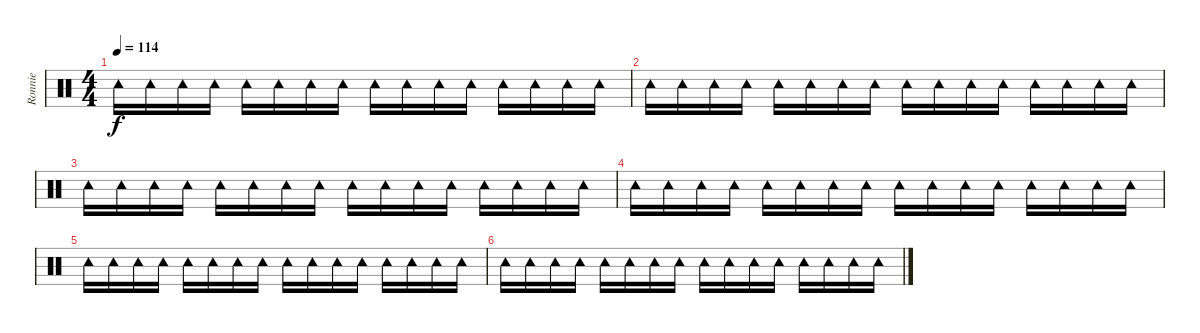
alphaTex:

\track ("Ronnie" "Ronnie") {instrument percussion}
\staff {score}
\articulation defaults
\ts (4 4)
\tempo 114
\clef neutral
\ks c "Tambourine (hit)".16{dy f} "Tambourine (hit)".16 "Tambourine (hit)".16 "Tambourine (hit)".16 "Tambourine (hit)".16 "Tambourine (hit)".16 "Tambourine (hit)".16 "Tambourine (hit)".16 "Tambourine (hit)".16 "Tambourine (hit)".16 "Tambourine (hit)".16 "Tambourine (hit)".16 "Tambourine (hit)".16 "Tambourine (hit)".16 "Tambourine (hit)".16 "Tambourine (hit)".16
|
"Tambourine (hit)".16 "Tambourine (hit)".16 "Tambourine (hit)".16 "Tambourine (hit)".16 "Tambourine (hit)".16 "Tambourine (hit)".16 "Tambourine (hit)".16 "Tambourine (hit)".16 "Tambourine (hit)".16 "Tambourine (hit)".16 "Tambourine (hit)".16 "Tambourine (hit)".16 "Tambourine (hit)".16 "Tambourine (hit)".16 "Tambourine (hit)".16 "Tambourine (hit)".16 |
"Tambourine (hit)".16 "Tambourine (hit)".16 "Tambourine (hit)".16 "Tambourine (hit)".16 "Tambourine (hit)".16 "Tambourine (hit)".16 "Tambourine (hit)".16 "Tambourine (hit)".16 "Tambourine (hit)".16 "Tambourine (hit)".16 "Tambourine (hit)".16 "Tambourine (hit)".16 "Tambourine (hit)".16 "Tambourine (hit)".16 "Tambourine (hit)".16 "Tambourine (hit)".16 |
"Tambourine (hit)".16 "Tambourine (hit)".16 "Tambourine (hit)".16 "Tambourine (hit)".16 "Tambourine (hit)".16 "Tambourine (hit)".16 "Tambourine (hit)".16 "Tambourine (hit)".16 "Tambourine (hit)".16 "Tambourine (hit)".16 "Tambourine (hit)".16 "Tambourine (hit)".16 "Tambourine (hit)".16 "Tambourine (hit)".16 "Tambourine (hit)".16 "Tambourine (hit)".16 |
"Tambourine (hit)".16 "Tambourine (hit)".16 "Tambourine (hit)".16 "Tambourine (hit)".16 "Tambourine (hit)".16 "Tambourine (hit)".16 "Tambourine (hit)".16 "Tambourine (hit)".16 "Tambourine (hit)".16 "Tambourine (hit)".16 "Tambourine (hit)".16 "Tambourine (hit)".16 "Tambourine (hit)".16 "Tambourine (hit)".16 "Tambourine (hit)".16 "Tambourine (hit)".16 |
"Tambourine (hit)".16 "Tambourine (hit)".16 "Tambourine (hit)".16 "Tambourine (hit)".16 "Tambourine (hit)".16 "Tambourine (hit)".16 "Tambourine (hit)".16 "Tambourine (hit)".16 "Tambourine (hit)".16 "Tambourine (hit)".16 "Tambourine (hit)".16 "Tambourine (hit)".16 "Tambourine (hit)".16 "Tambourine (hit)".16 "Tambourine (hit)".16 "Tambourine (hit)".16
